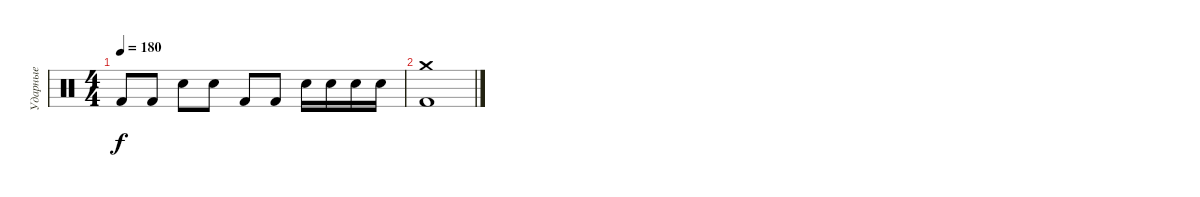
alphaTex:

\track ("Ударные" "Ударные") {instrument percussion}
\staff {score}
\articulation defaults
\ts (4 4)
\tempo 180
\clef neutral
\ks c "Kick (hit) 2".8{dy f} "Kick (hit) 2".8 "Electric Snare (hit)".8 "Electric Snare (hit)".8 "Kick (hit) 2".8 "Kick (hit) 2".8 "Electric Snare (hit)".16 "Electric Snare (hit)".16 "Electric Snare (hit)".16 "Electric Snare (hit)".16
|
("Kick (hit) 2" "Crash medium (hit)").1
